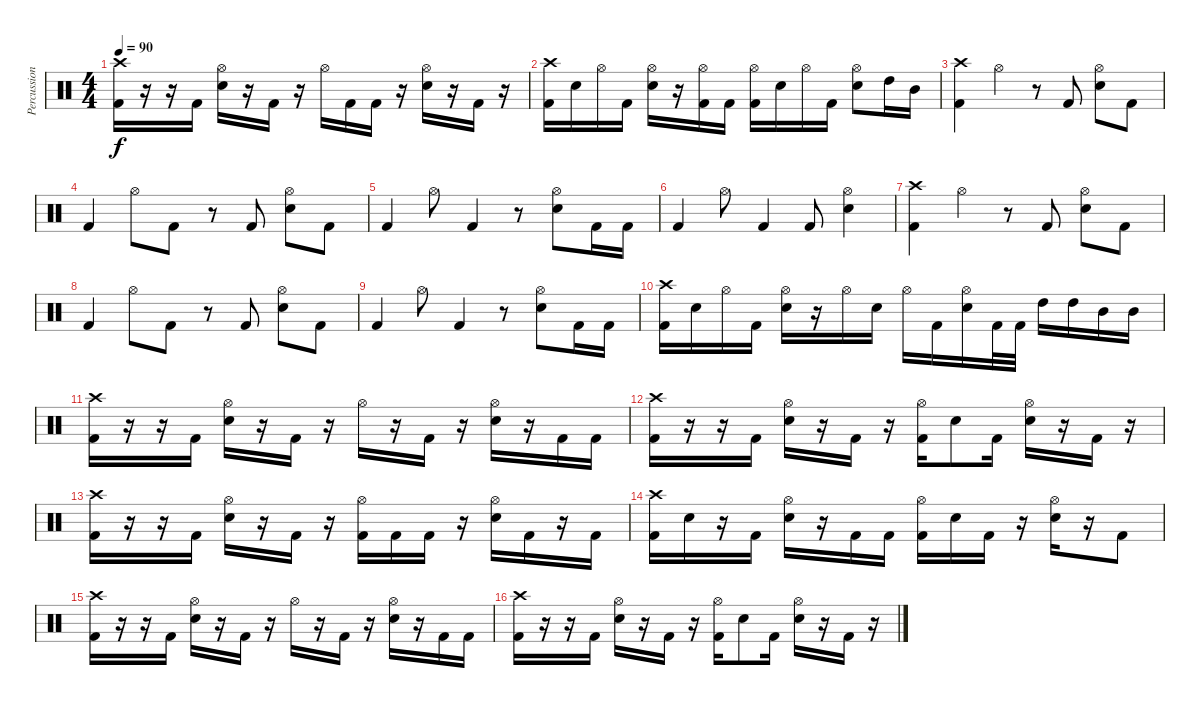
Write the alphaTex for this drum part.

\track ("Percussion" "Percussion") {instrument percussion}
\staff {score}
\articulation defaults
\ts (4 4)
\tempo 90
\clef neutral
\ks c
("Crash high (hit)" "Kick (hit) 2").16{dy f} r.16 r.16 "Kick (hit) 2".16 ("Hi-Hat (open)" "Snare (hit) 2").16 r.16 "Kick (hit) 2".16 r.16 "Hi-Hat (open)".16 "Kick (hit) 2".16 "Kick (hit) 2".16 r.16 ("Hi-Hat (open)" "Snare (hit) 2").16 r.16 "Kick (hit) 2".16 r.16 |
("Crash high (hit)" "Kick (hit) 2").16 "Snare (hit) 2".16 "Hi-Hat (open)".16 "Kick (hit) 2".16 ("Hi-Hat (open)" "Snare (hit) 2").16 r.16 ("Hi-Hat (open)" "Kick (hit) 2").16 "Kick (hit) 2".16 ("Hi-Hat (open)" "Kick (hit) 2").16 "Snare (hit) 2".16 "Hi-Hat (open)".16 "Kick (hit) 2".16 ("Hi-Hat (open)" "Snare (hit) 2").8 "High Tom (hit)".16 "Mid Tom (hit)".16 |
("Crash high (hit)" "Kick (hit) 2").4 "Hi-Hat (open)".4 r.8 "Kick (hit) 2".8 ("Hi-Hat (open)" "Snare (hit) 2").8 "Kick (hit) 2".8 |
"Kick (hit) 2".4 "Hi-Hat (open)".8 "Kick (hit) 2".8 r.8 "Kick (hit) 2".8 ("Hi-Hat (open)" "Snare (hit) 2").8 "Kick (hit) 2".8 |
"Kick (hit) 2".4 "Hi-Hat (open)".8 "Kick (hit) 2".4 r.8 ("Hi-Hat (open)" "Snare (hit) 2").8 "Kick (hit) 2".16 "Kick (hit) 2".16 |
"Kick (hit) 2".4 "Hi-Hat (open)".8 "Kick (hit) 2".4 "Kick (hit) 2".8 ("Hi-Hat (open)" "Snare (hit) 2").4 |
("Crash high (hit)" "Kick (hit) 2").4 "Hi-Hat (open)".4 r.8 "Kick (hit) 2".8 ("Hi-Hat (open)" "Snare (hit) 2").8 "Kick (hit) 2".8 |
"Kick (hit) 2".4 "Hi-Hat (open)".8 "Kick (hit) 2".8 r.8 "Kick (hit) 2".8 ("Hi-Hat (open)" "Snare (hit) 2").8 "Kick (hit) 2".8 |
"Kick (hit) 2".4 "Hi-Hat (open)".8 "Kick (hit) 2".4 r.8 ("Hi-Hat (open)" "Snare (hit) 2").8 "Kick (hit) 2".16 "Kick (hit) 2".16 |
("Crash high (hit)" "Kick (hit) 2").16 "Snare (hit) 2".16 "Hi-Hat (open)".16 "Kick (hit) 2".16 ("Hi-Hat (open)" "Snare (hit) 2").16 r.16 "Hi-Hat (open)".16 "Snare (hit) 2".16 "Hi-Hat (open)".16 "Kick (hit) 2".16 ("Hi-Hat (open)" "Snare (hit) 2").16 "Kick (hit) 2".32 "Kick (hit) 2".32 "High Tom (hit)".16 "High Tom (hit)".16 "Mid Tom (hit)".16 "Mid Tom (hit)".16 |
("Crash high (hit)" "Kick (hit) 2").16 r.16 r.16 "Kick (hit) 2".16 ("Hi-Hat (open)" "Snare (hit) 2").16 r.16 "Kick (hit) 2".16 r.16 "Hi-Hat (open)".16 r.16 "Kick (hit) 2".16 r.16 ("Hi-Hat (open)" "Snare (hit) 2").16 r.16 "Kick (hit) 2".16 "Kick (hit) 2".16 |
("Crash high (hit)" "Kick (hit) 2").16 r.16 r.16 "Kick (hit) 2".16 ("Hi-Hat (open)" "Snare (hit) 2").16 r.16 "Kick (hit) 2".16 r.16 ("Hi-Hat (open)" "Kick (hit) 2").16 "Snare (hit) 2".8 "Kick (hit) 2".16 ("Hi-Hat (open)" "Snare (hit) 2").16 r.16 "Kick (hit) 2".16 r.16 |
("Crash high (hit)" "Kick (hit) 2").16 r.16 r.16 "Kick (hit) 2".16 ("Hi-Hat (open)" "Snare (hit) 2").16 r.16 "Kick (hit) 2".16 r.16 ("Hi-Hat (open)" "Kick (hit) 2").16 "Kick (hit) 2".16 "Kick (hit) 2".16 r.16 ("Hi-Hat (open)" "Snare (hit) 2").16 "Kick (hit) 2".16 r.16 "Kick (hit) 2".16 |
("Crash high (hit)" "Kick (hit) 2").16 "Snare (hit) 2".16 r.16 "Kick (hit) 2".16 ("Hi-Hat (open)" "Snare (hit) 2").16 r.16 "Kick (hit) 2".16 "Kick (hit) 2".16 ("Hi-Hat (open)" "Kick (hit) 2").16 "Snare (hit) 2".16 "Kick (hit) 2".16 r.16 ("Hi-Hat (open)" "Snare (hit) 2").16 r.16 "Kick (hit) 2".8 |
("Crash high (hit)" "Kick (hit) 2").16 r.16 r.16 "Kick (hit) 2".16 ("Hi-Hat (open)" "Snare (hit) 2").16 r.16 "Kick (hit) 2".16 r.16 "Hi-Hat (open)".16 r.16 "Kick (hit) 2".16 r.16 ("Hi-Hat (open)" "Snare (hit) 2").16 r.16 "Kick (hit) 2".16 "Kick (hit) 2".16 |
("Crash high (hit)" "Kick (hit) 2").16 r.16 r.16 "Kick (hit) 2".16 ("Hi-Hat (open)" "Snare (hit) 2").16 r.16 "Kick (hit) 2".16 r.16 ("Hi-Hat (open)" "Kick (hit) 2").16 "Snare (hit) 2".8 "Kick (hit) 2".16 ("Hi-Hat (open)" "Snare (hit) 2").16 r.16 "Kick (hit) 2".16 r.16
